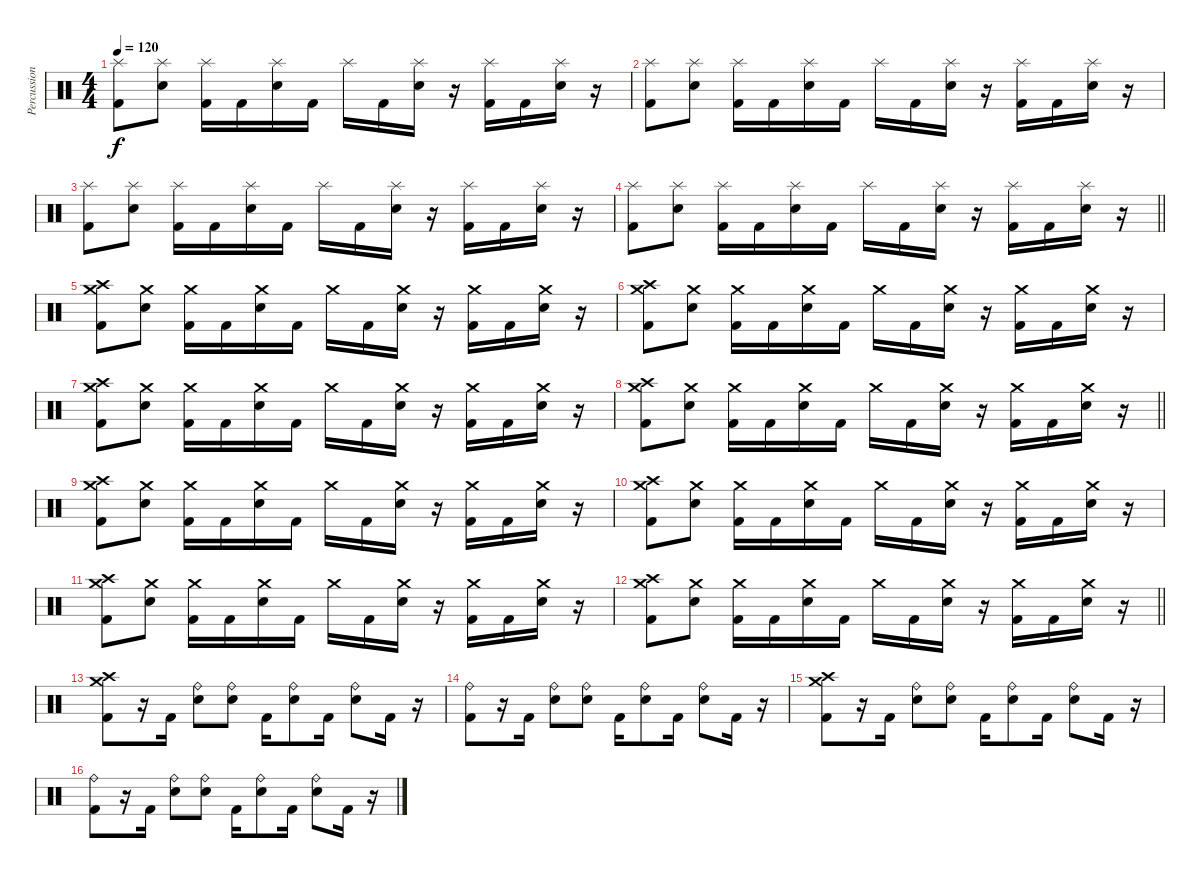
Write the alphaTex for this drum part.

\track ("Percussion" "Percussion") {instrument percussion}
\staff {score}
\articulation defaults
\ts (4 4)
\tempo 120
\clef neutral
\ks c
("Splash (hit)" "Kick (hit) 2").8{dy f} ("Splash (hit)" "Electric Snare (hit)").8 ("Splash (hit)" "Kick (hit) 2").16 "Kick (hit) 2".16 ("Splash (hit)" "Electric Snare (hit)").16 "Kick (hit) 2".16 "Splash (hit)".16 "Kick (hit) 2".16 ("Splash (hit)" "Electric Snare (hit)").16 r.16 ("Splash (hit)" "Kick (hit) 2").16 "Kick (hit) 2".16 ("Splash (hit)" "Electric Snare (hit)").16 r.16 |
("Splash (hit)" "Kick (hit) 2").8 ("Splash (hit)" "Electric Snare (hit)").8 ("Splash (hit)" "Kick (hit) 2").16 "Kick (hit) 2".16 ("Splash (hit)" "Electric Snare (hit)").16 "Kick (hit) 2".16 "Splash (hit)".16 "Kick (hit) 2".16 ("Splash (hit)" "Electric Snare (hit)").16 r.16 ("Splash (hit)" "Kick (hit) 2").16 "Kick (hit) 2".16 ("Splash (hit)" "Electric Snare (hit)").16 r.16 |
("Splash (hit)" "Kick (hit) 2").8 ("Splash (hit)" "Electric Snare (hit)").8 ("Splash (hit)" "Kick (hit) 2").16 "Kick (hit) 2".16 ("Splash (hit)" "Electric Snare (hit)").16 "Kick (hit) 2".16 "Splash (hit)".16 "Kick (hit) 2".16 ("Splash (hit)" "Electric Snare (hit)").16 r.16 ("Splash (hit)" "Kick (hit) 2").16 "Kick (hit) 2".16 ("Splash (hit)" "Electric Snare (hit)").16 r.16 |
\barLineRight lightlight
("Splash (hit)" "Kick (hit) 2").8 ("Splash (hit)" "Electric Snare (hit)").8 ("Splash (hit)" "Kick (hit) 2").16 "Kick (hit) 2".16 ("Splash (hit)" "Electric Snare (hit)").16 "Kick (hit) 2".16 "Splash (hit)".16 "Kick (hit) 2".16 ("Splash (hit)" "Electric Snare (hit)").16 r.16 ("Splash (hit)" "Kick (hit) 2").16 "Kick (hit) 2".16 ("Splash (hit)" "Electric Snare (hit)").16 r.16 |
("Crash medium (hit)" "Crash high (hit)" "Kick (hit) 2").8 ("Crash medium (hit)" "Electric Snare (hit)").8 ("Crash medium (hit)" "Kick (hit) 2").16 "Kick (hit) 2".16 ("Crash medium (hit)" "Electric Snare (hit)").16 "Kick (hit) 2".16 "Crash medium (hit)".16 "Kick (hit) 2".16 ("Crash medium (hit)" "Electric Snare (hit)").16 r.16 ("Crash medium (hit)" "Kick (hit) 2").16 "Kick (hit) 2".16 ("Crash medium (hit)" "Electric Snare (hit)").16 r.16 |
("Crash medium (hit)" "Crash high (hit)" "Kick (hit) 2").8 ("Crash medium (hit)" "Electric Snare (hit)").8 ("Crash medium (hit)" "Kick (hit) 2").16 "Kick (hit) 2".16 ("Crash medium (hit)" "Electric Snare (hit)").16 "Kick (hit) 2".16 "Crash medium (hit)".16 "Kick (hit) 2".16 ("Crash medium (hit)" "Electric Snare (hit)").16 r.16 ("Crash medium (hit)" "Kick (hit) 2").16 "Kick (hit) 2".16 ("Crash medium (hit)" "Electric Snare (hit)").16 r.16 |
("Crash medium (hit)" "Crash high (hit)" "Kick (hit) 2").8 ("Crash medium (hit)" "Electric Snare (hit)").8 ("Crash medium (hit)" "Kick (hit) 2").16 "Kick (hit) 2".16 ("Crash medium (hit)" "Electric Snare (hit)").16 "Kick (hit) 2".16 "Crash medium (hit)".16 "Kick (hit) 2".16 ("Crash medium (hit)" "Electric Snare (hit)").16 r.16 ("Crash medium (hit)" "Kick (hit) 2").16 "Kick (hit) 2".16 ("Crash medium (hit)" "Electric Snare (hit)").16 r.16 |
\barLineRight lightlight
("Crash medium (hit)" "Crash high (hit)" "Kick (hit) 2").8 ("Crash medium (hit)" "Electric Snare (hit)").8 ("Crash medium (hit)" "Kick (hit) 2").16 "Kick (hit) 2".16 ("Crash medium (hit)" "Electric Snare (hit)").16 "Kick (hit) 2".16 "Crash medium (hit)".16 "Kick (hit) 2".16 ("Crash medium (hit)" "Electric Snare (hit)").16 r.16 ("Crash medium (hit)" "Kick (hit) 2").16 "Kick (hit) 2".16 ("Crash medium (hit)" "Electric Snare (hit)").16 r.16 |
("Crash medium (hit)" "Crash high (hit)" "Kick (hit) 2").8 ("Crash medium (hit)" "Electric Snare (hit)").8 ("Crash medium (hit)" "Kick (hit) 2").16 "Kick (hit) 2".16 ("Crash medium (hit)" "Electric Snare (hit)").16 "Kick (hit) 2".16 "Crash medium (hit)".16 "Kick (hit) 2".16 ("Crash medium (hit)" "Electric Snare (hit)").16 r.16 ("Crash medium (hit)" "Kick (hit) 2").16 "Kick (hit) 2".16 ("Crash medium (hit)" "Electric Snare (hit)").16 r.16 |
("Crash medium (hit)" "Crash high (hit)" "Kick (hit) 2").8 ("Crash medium (hit)" "Electric Snare (hit)").8 ("Crash medium (hit)" "Kick (hit) 2").16 "Kick (hit) 2".16 ("Crash medium (hit)" "Electric Snare (hit)").16 "Kick (hit) 2".16 "Crash medium (hit)".16 "Kick (hit) 2".16 ("Crash medium (hit)" "Electric Snare (hit)").16 r.16 ("Crash medium (hit)" "Kick (hit) 2").16 "Kick (hit) 2".16 ("Crash medium (hit)" "Electric Snare (hit)").16 r.16 |
("Crash medium (hit)" "Crash high (hit)" "Kick (hit) 2").8 ("Crash medium (hit)" "Electric Snare (hit)").8 ("Crash medium (hit)" "Kick (hit) 2").16 "Kick (hit) 2".16 ("Crash medium (hit)" "Electric Snare (hit)").16 "Kick (hit) 2".16 "Crash medium (hit)".16 "Kick (hit) 2".16 ("Crash medium (hit)" "Electric Snare (hit)").16 r.16 ("Crash medium (hit)" "Kick (hit) 2").16 "Kick (hit) 2".16 ("Crash medium (hit)" "Electric Snare (hit)").16 r.16 |
\barLineRight lightlight
("Crash medium (hit)" "Crash high (hit)" "Kick (hit) 2").8 ("Crash medium (hit)" "Electric Snare (hit)").8 ("Crash medium (hit)" "Kick (hit) 2").16 "Kick (hit) 2".16 ("Crash medium (hit)" "Electric Snare (hit)").16 "Kick (hit) 2".16 "Crash medium (hit)".16 "Kick (hit) 2".16 ("Crash medium (hit)" "Electric Snare (hit)").16 r.16 ("Crash medium (hit)" "Kick (hit) 2").16 "Kick (hit) 2".16 ("Crash medium (hit)" "Electric Snare (hit)").16 r.16 |
("Crash medium (hit)" "Crash high (hit)" "Kick (hit) 2").8 r.16 "Kick (hit) 2".16 ("Ride (bell)" "Electric Snare (hit)").8 ("Ride (bell)" "Electric Snare (hit)").8 "Kick (hit) 2".16 ("Ride (bell)" "Electric Snare (hit)").8 "Kick (hit) 2".16 ("Ride (bell)" "Electric Snare (hit)").8 "Kick (hit) 2".16 r.16 |
("Ride (bell)" "Kick (hit) 2").8 r.16 "Kick (hit) 2".16 ("Ride (bell)" "Electric Snare (hit)").8 ("Ride (bell)" "Electric Snare (hit)").8 "Kick (hit) 2".16 ("Ride (bell)" "Electric Snare (hit)").8 "Kick (hit) 2".16 ("Ride (bell)" "Electric Snare (hit)").8 "Kick (hit) 2".16 r.16 |
("Crash medium (hit)" "Crash high (hit)" "Kick (hit) 2").8 r.16 "Kick (hit) 2".16 ("Ride (bell)" "Electric Snare (hit)").8 ("Ride (bell)" "Electric Snare (hit)").8 "Kick (hit) 2".16 ("Ride (bell)" "Electric Snare (hit)").8 "Kick (hit) 2".16 ("Ride (bell)" "Electric Snare (hit)").8 "Kick (hit) 2".16 r.16 |
("Ride (bell)" "Kick (hit) 2").8 r.16 "Kick (hit) 2".16 ("Ride (bell)" "Electric Snare (hit)").8 ("Ride (bell)" "Electric Snare (hit)").8 "Kick (hit) 2".16 ("Ride (bell)" "Electric Snare (hit)").8 "Kick (hit) 2".16 ("Ride (bell)" "Electric Snare (hit)").8 "Kick (hit) 2".16 r.16
